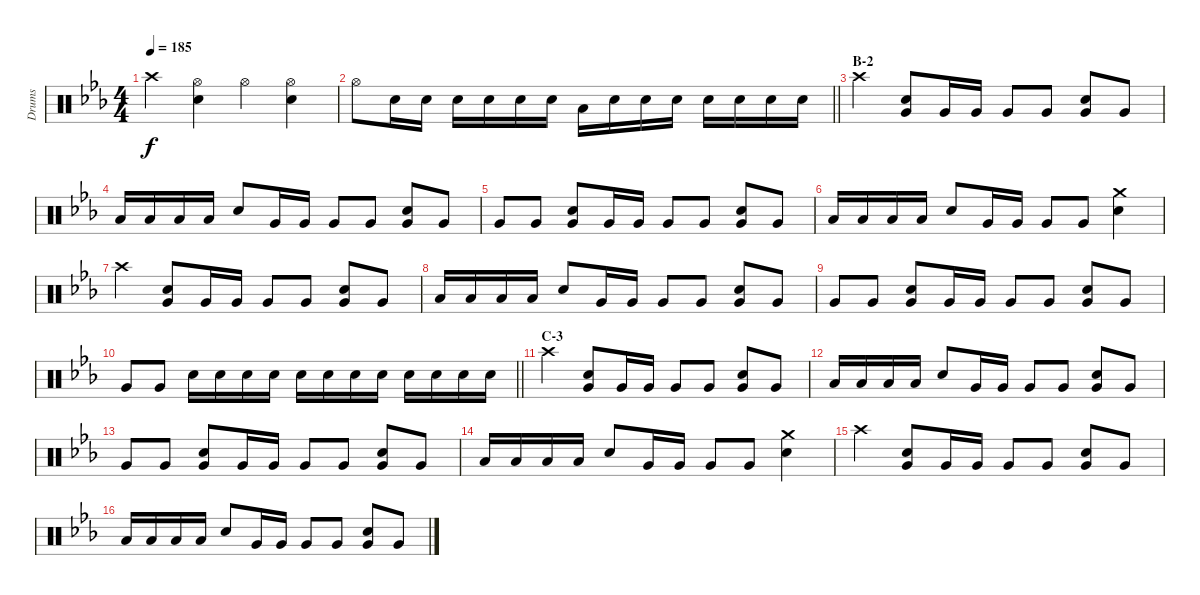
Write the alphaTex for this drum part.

\track ("Drums" "Drums") {instrument percussion}
\staff {score}
\articulation defaults
\ts (4 4)
\tempo 185
\clef neutral
\ks eb "Crash high (hit)".4{dy f}
("Hi-Hat (open)" "Snare (hit) 2").4 "Hi-Hat (open)".4 ("Hi-Hat (open)" "Snare (hit) 2").4 |
\barLineRight lightlight "Hi-Hat (open)".8 "Snare (hit) 2".16 "Snare (hit) 2".16 "Snare (hit) 2".16 "Snare (hit) 2".16 "Snare (hit) 2".16 "Snare (hit) 2".16 "Low Tom (hit)".16 "Snare (hit) 2".16 "Snare (hit) 2".16 "Snare (hit) 2".16 "Snare (hit) 2".16 "Snare (hit) 2".16 "Snare (hit) 2".16 "Snare (hit) 2".16
|
\section ("" "B-2")
"Crash high (hit)".4 ("Very Low Tom (hit)" "Snare (hit) 2").8 "Very Low Tom (hit)".16 "Very Low Tom (hit)".16 "Very Low Tom (hit)".8 "Very Low Tom (hit)".8 ("Snare (hit) 2" "Very Low Tom (hit)").8 "Very Low Tom (hit)".8 |
"Low Tom (hit)".16 "Low Tom (hit)".16 "Low Tom (hit)".16 "Low Tom (hit)".16 "Snare (hit) 2".8 "Very Low Tom (hit)".16 "Very Low Tom (hit)".16 "Very Low Tom (hit)".8 "Very Low Tom (hit)".8 ("Snare (hit) 2" "Very Low Tom (hit)").8 "Very Low Tom (hit)".8 |
"Very Low Tom (hit)".8 "Very Low Tom (hit)".8 ("Snare (hit) 2" "Very Low Tom (hit)").8 "Very Low Tom (hit)".16 "Very Low Tom (hit)".16 "Very Low Tom (hit)".8 "Very Low Tom (hit)".8 ("Snare (hit) 2" "Very Low Tom (hit)").8 "Very Low Tom (hit)".8 |
"Low Tom (hit)".16 "Low Tom (hit)".16 "Low Tom (hit)".16 "Low Tom (hit)".16 "Snare (hit) 2".8 "Very Low Tom (hit)".16 "Very Low Tom (hit)".16 "Very Low Tom (hit)".8 "Very Low Tom (hit)".8 ("Crash medium (hit)" "Snare (hit) 2").4 |
"Crash high (hit)".4 ("Very Low Tom (hit)" "Snare (hit) 2").8 "Very Low Tom (hit)".16 "Very Low Tom (hit)".16 "Very Low Tom (hit)".8 "Very Low Tom (hit)".8 ("Snare (hit) 2" "Very Low Tom (hit)").8 "Very Low Tom (hit)".8 |
"Low Tom (hit)".16 "Low Tom (hit)".16 "Low Tom (hit)".16 "Low Tom (hit)".16 "Snare (hit) 2".8 "Very Low Tom (hit)".16 "Very Low Tom (hit)".16 "Very Low Tom (hit)".8 "Very Low Tom (hit)".8 ("Snare (hit) 2" "Very Low Tom (hit)").8 "Very Low Tom (hit)".8 |
"Very Low Tom (hit)".8 "Very Low Tom (hit)".8 ("Snare (hit) 2" "Very Low Tom (hit)").8 "Very Low Tom (hit)".16 "Very Low Tom (hit)".16 "Very Low Tom (hit)".8 "Very Low Tom (hit)".8 ("Snare (hit) 2" "Very Low Tom (hit)").8 "Very Low Tom (hit)".8 |
\barLineRight lightlight "Very Low Tom (hit)".8 "Very Low Tom (hit)".8 "Snare (hit) 2".16 "Snare (hit) 2".16 "Snare (hit) 2".16 "Snare (hit) 2".16 "Snare (hit) 2".16 "Snare (hit) 2".16 "Snare (hit) 2".16 "Snare (hit) 2".16 "Snare (hit) 2".16 "Snare (hit) 2".16 "Snare (hit) 2".16 "Snare (hit) 2".16
|
\section ("" "C-3")
"Crash high (hit)".4 ("Very Low Tom (hit)" "Snare (hit) 2").8 "Very Low Tom (hit)".16 "Very Low Tom (hit)".16 "Very Low Tom (hit)".8 "Very Low Tom (hit)".8 ("Snare (hit) 2" "Very Low Tom (hit)").8 "Very Low Tom (hit)".8 |
"Low Tom (hit)".16 "Low Tom (hit)".16 "Low Tom (hit)".16 "Low Tom (hit)".16 "Snare (hit) 2".8 "Very Low Tom (hit)".16 "Very Low Tom (hit)".16 "Very Low Tom (hit)".8 "Very Low Tom (hit)".8 ("Snare (hit) 2" "Very Low Tom (hit)").8 "Very Low Tom (hit)".8 |
"Very Low Tom (hit)".8 "Very Low Tom (hit)".8 ("Snare (hit) 2" "Very Low Tom (hit)").8 "Very Low Tom (hit)".16 "Very Low Tom (hit)".16 "Very Low Tom (hit)".8 "Very Low Tom (hit)".8 ("Snare (hit) 2" "Very Low Tom (hit)").8 "Very Low Tom (hit)".8 |
"Low Tom (hit)".16 "Low Tom (hit)".16 "Low Tom (hit)".16 "Low Tom (hit)".16 "Snare (hit) 2".8 "Very Low Tom (hit)".16 "Very Low Tom (hit)".16 "Very Low Tom (hit)".8 "Very Low Tom (hit)".8 ("Crash medium (hit)" "Snare (hit) 2").4 |
"Crash high (hit)".4 ("Very Low Tom (hit)" "Snare (hit) 2").8 "Very Low Tom (hit)".16 "Very Low Tom (hit)".16 "Very Low Tom (hit)".8 "Very Low Tom (hit)".8 ("Snare (hit) 2" "Very Low Tom (hit)").8 "Very Low Tom (hit)".8 |
"Low Tom (hit)".16 "Low Tom (hit)".16 "Low Tom (hit)".16 "Low Tom (hit)".16 "Snare (hit) 2".8 "Very Low Tom (hit)".16 "Very Low Tom (hit)".16 "Very Low Tom (hit)".8 "Very Low Tom (hit)".8 ("Snare (hit) 2" "Very Low Tom (hit)").8 "Very Low Tom (hit)".8
